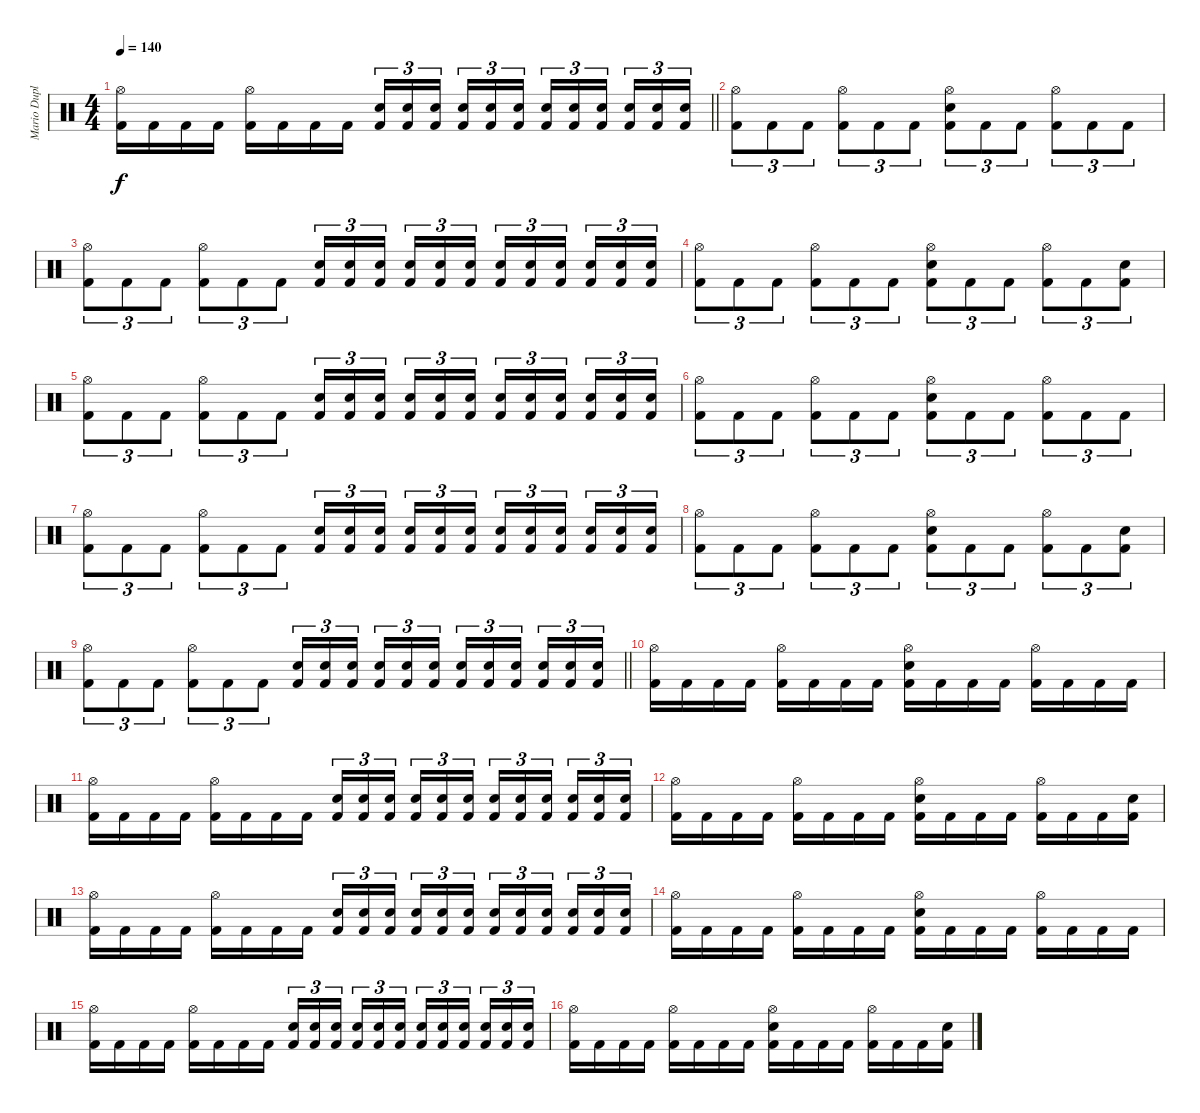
\track ("Mario Duplantier" "Mario Dupl") {instrument percussion}
\staff {score}
\articulation defaults
\ts (4 4)
\tempo 140
\clef neutral
\barLineRight lightlight
\ks c
("Hi-Hat (open)" "Kick (hit) 2").16{dy f} "Kick (hit) 2".16 "Kick (hit) 2".16 "Kick (hit) 2".16 ("Hi-Hat (open)" "Kick (hit) 2").16 "Kick (hit) 2".16 "Kick (hit) 2".16 "Kick (hit) 2".16 ("Snare (hit) 2" "Kick (hit) 2").16{tu (3 2)} ("Snare (hit) 2" "Kick (hit) 2").16{tu (3 2)} ("Snare (hit) 2" "Kick (hit) 2").16{tu (3 2) beam splitsecondary} ("Snare (hit) 2" "Kick (hit) 2").16{tu (3 2)} ("Snare (hit) 2" "Kick (hit) 2").16{tu (3 2)} ("Snare (hit) 2" "Kick (hit) 2").16{tu (3 2)} ("Snare (hit) 2" "Kick (hit) 2").16{tu (3 2)} ("Snare (hit) 2" "Kick (hit) 2").16{tu (3 2)} ("Snare (hit) 2" "Kick (hit) 2").16{tu (3 2) beam splitsecondary} ("Snare (hit) 2" "Kick (hit) 2").16{tu (3 2)} ("Snare (hit) 2" "Kick (hit) 2").16{tu (3 2)} ("Snare (hit) 2" "Kick (hit) 2").16{tu (3 2)} |
\section ("" "")
("Hi-Hat (open)" "Kick (hit) 2").8{tu (3 2)} "Kick (hit) 2".8{tu (3 2)} "Kick (hit) 2".8{tu (3 2)} ("Hi-Hat (open)" "Kick (hit) 2").8{tu (3 2)} "Kick (hit) 2".8{tu (3 2)} "Kick (hit) 2".8{tu (3 2)} ("Hi-Hat (open)" "Electric Snare (hit)" "Kick (hit) 2").8{tu (3 2)} "Kick (hit) 2".8{tu (3 2)} "Kick (hit) 2".8{tu (3 2)} ("Hi-Hat (open)" "Kick (hit) 2").8{tu (3 2)} "Kick (hit) 2".8{tu (3 2)} "Kick (hit) 2".8{tu (3 2)} |
("Hi-Hat (open)" "Kick (hit) 2").8{tu (3 2)} "Kick (hit) 2".8{tu (3 2)} "Kick (hit) 2".8{tu (3 2)} ("Hi-Hat (open)" "Kick (hit) 2").8{tu (3 2)} "Kick (hit) 2".8{tu (3 2)} "Kick (hit) 2".8{tu (3 2)} ("Electric Snare (hit)" "Kick (hit) 2").16{tu (3 2)} ("Electric Snare (hit)" "Kick (hit) 2").16{tu (3 2)} ("Electric Snare (hit)" "Kick (hit) 2").16{tu (3 2) beam splitsecondary} ("Electric Snare (hit)" "Kick (hit) 2").16{tu (3 2)} ("Electric Snare (hit)" "Kick (hit) 2").16{tu (3 2)} ("Electric Snare (hit)" "Kick (hit) 2").16{tu (3 2)} ("Electric Snare (hit)" "Kick (hit) 2").16{tu (3 2)} ("Electric Snare (hit)" "Kick (hit) 2").16{tu (3 2)} ("Electric Snare (hit)" "Kick (hit) 2").16{tu (3 2) beam splitsecondary} ("Electric Snare (hit)" "Kick (hit) 2").16{tu (3 2)} ("Electric Snare (hit)" "Kick (hit) 2").16{tu (3 2)} ("Electric Snare (hit)" "Kick (hit) 2").16{tu (3 2)} |
("Hi-Hat (open)" "Kick (hit) 2").8{tu (3 2)} "Kick (hit) 2".8{tu (3 2)} "Kick (hit) 2".8{tu (3 2)} ("Hi-Hat (open)" "Kick (hit) 2").8{tu (3 2)} "Kick (hit) 2".8{tu (3 2)} "Kick (hit) 2".8{tu (3 2)} ("Hi-Hat (open)" "Electric Snare (hit)" "Kick (hit) 2").8{tu (3 2)} "Kick (hit) 2".8{tu (3 2)} "Kick (hit) 2".8{tu (3 2)} ("Hi-Hat (open)" "Kick (hit) 2").8{tu (3 2)} "Kick (hit) 2".8{tu (3 2)} ("Electric Snare (hit)" "Kick (hit) 2").8{tu (3 2)} |
("Hi-Hat (open)" "Kick (hit) 2").8{tu (3 2)} "Kick (hit) 2".8{tu (3 2)} "Kick (hit) 2".8{tu (3 2)} ("Hi-Hat (open)" "Kick (hit) 2").8{tu (3 2)} "Kick (hit) 2".8{tu (3 2)} "Kick (hit) 2".8{tu (3 2)} ("Electric Snare (hit)" "Kick (hit) 2").16{tu (3 2)} ("Electric Snare (hit)" "Kick (hit) 2").16{tu (3 2)} ("Electric Snare (hit)" "Kick (hit) 2").16{tu (3 2) beam splitsecondary} ("Electric Snare (hit)" "Kick (hit) 2").16{tu (3 2)} ("Electric Snare (hit)" "Kick (hit) 2").16{tu (3 2)} ("Electric Snare (hit)" "Kick (hit) 2").16{tu (3 2)} ("Electric Snare (hit)" "Kick (hit) 2").16{tu (3 2)} ("Electric Snare (hit)" "Kick (hit) 2").16{tu (3 2)} ("Electric Snare (hit)" "Kick (hit) 2").16{tu (3 2) beam splitsecondary} ("Electric Snare (hit)" "Kick (hit) 2").16{tu (3 2)} ("Electric Snare (hit)" "Kick (hit) 2").16{tu (3 2)} ("Electric Snare (hit)" "Kick (hit) 2").16{tu (3 2)} |
("Hi-Hat (open)" "Kick (hit) 2").8{tu (3 2)} "Kick (hit) 2".8{tu (3 2)} "Kick (hit) 2".8{tu (3 2)} ("Hi-Hat (open)" "Kick (hit) 2").8{tu (3 2)} "Kick (hit) 2".8{tu (3 2)} "Kick (hit) 2".8{tu (3 2)} ("Hi-Hat (open)" "Electric Snare (hit)" "Kick (hit) 2").8{tu (3 2)} "Kick (hit) 2".8{tu (3 2)} "Kick (hit) 2".8{tu (3 2)} ("Hi-Hat (open)" "Kick (hit) 2").8{tu (3 2)} "Kick (hit) 2".8{tu (3 2)} "Kick (hit) 2".8{tu (3 2)} |
("Hi-Hat (open)" "Kick (hit) 2").8{tu (3 2)} "Kick (hit) 2".8{tu (3 2)} "Kick (hit) 2".8{tu (3 2)} ("Hi-Hat (open)" "Kick (hit) 2").8{tu (3 2)} "Kick (hit) 2".8{tu (3 2)} "Kick (hit) 2".8{tu (3 2)} ("Electric Snare (hit)" "Kick (hit) 2").16{tu (3 2)} ("Electric Snare (hit)" "Kick (hit) 2").16{tu (3 2)} ("Electric Snare (hit)" "Kick (hit) 2").16{tu (3 2) beam splitsecondary} ("Electric Snare (hit)" "Kick (hit) 2").16{tu (3 2)} ("Electric Snare (hit)" "Kick (hit) 2").16{tu (3 2)} ("Electric Snare (hit)" "Kick (hit) 2").16{tu (3 2)} ("Electric Snare (hit)" "Kick (hit) 2").16{tu (3 2)} ("Electric Snare (hit)" "Kick (hit) 2").16{tu (3 2)} ("Electric Snare (hit)" "Kick (hit) 2").16{tu (3 2) beam splitsecondary} ("Electric Snare (hit)" "Kick (hit) 2").16{tu (3 2)} ("Electric Snare (hit)" "Kick (hit) 2").16{tu (3 2)} ("Electric Snare (hit)" "Kick (hit) 2").16{tu (3 2)} |
("Hi-Hat (open)" "Kick (hit) 2").8{tu (3 2)} "Kick (hit) 2".8{tu (3 2)} "Kick (hit) 2".8{tu (3 2)} ("Hi-Hat (open)" "Kick (hit) 2").8{tu (3 2)} "Kick (hit) 2".8{tu (3 2)} "Kick (hit) 2".8{tu (3 2)} ("Hi-Hat (open)" "Electric Snare (hit)" "Kick (hit) 2").8{tu (3 2)} "Kick (hit) 2".8{tu (3 2)} "Kick (hit) 2".8{tu (3 2)} ("Hi-Hat (open)" "Kick (hit) 2").8{tu (3 2)} "Kick (hit) 2".8{tu (3 2)} ("Electric Snare (hit)" "Kick (hit) 2").8{tu (3 2)} |
\barLineRight lightlight
("Hi-Hat (open)" "Kick (hit) 2").8{tu (3 2)} "Kick (hit) 2".8{tu (3 2)} "Kick (hit) 2".8{tu (3 2)} ("Hi-Hat (open)" "Kick (hit) 2").8{tu (3 2)} "Kick (hit) 2".8{tu (3 2)} "Kick (hit) 2".8{tu (3 2)} ("Electric Snare (hit)" "Kick (hit) 2").16{tu (3 2)} ("Electric Snare (hit)" "Kick (hit) 2").16{tu (3 2)} ("Electric Snare (hit)" "Kick (hit) 2").16{tu (3 2) beam splitsecondary} ("Electric Snare (hit)" "Kick (hit) 2").16{tu (3 2)} ("Electric Snare (hit)" "Kick (hit) 2").16{tu (3 2)} ("Electric Snare (hit)" "Kick (hit) 2").16{tu (3 2)} ("Electric Snare (hit)" "Kick (hit) 2").16{tu (3 2)} ("Electric Snare (hit)" "Kick (hit) 2").16{tu (3 2)} ("Electric Snare (hit)" "Kick (hit) 2").16{tu (3 2) beam splitsecondary} ("Electric Snare (hit)" "Kick (hit) 2").16{tu (3 2)} ("Electric Snare (hit)" "Kick (hit) 2").16{tu (3 2)} ("Electric Snare (hit)" "Kick (hit) 2").16{tu (3 2)} |
\section ("" "")
("Hi-Hat (open)" "Kick (hit) 2").16 "Kick (hit) 2".16 "Kick (hit) 2".16 "Kick (hit) 2".16 ("Hi-Hat (open)" "Kick (hit) 2").16 "Kick (hit) 2".16 "Kick (hit) 2".16 "Kick (hit) 2".16 ("Hi-Hat (open)" "Electric Snare (hit)" "Kick (hit) 2").16 "Kick (hit) 2".16 "Kick (hit) 2".16 "Kick (hit) 2".16 ("Hi-Hat (open)" "Kick (hit) 2").16 "Kick (hit) 2".16 "Kick (hit) 2".16 "Kick (hit) 2".16 |
("Hi-Hat (open)" "Kick (hit) 2").16 "Kick (hit) 2".16 "Kick (hit) 2".16 "Kick (hit) 2".16 ("Hi-Hat (open)" "Kick (hit) 2").16 "Kick (hit) 2".16 "Kick (hit) 2".16 "Kick (hit) 2".16 ("Snare (hit) 2" "Kick (hit) 2").16{tu (3 2)} ("Snare (hit) 2" "Kick (hit) 2").16{tu (3 2)} ("Snare (hit) 2" "Kick (hit) 2").16{tu (3 2) beam splitsecondary} ("Snare (hit) 2" "Kick (hit) 2").16{tu (3 2)} ("Snare (hit) 2" "Kick (hit) 2").16{tu (3 2)} ("Snare (hit) 2" "Kick (hit) 2").16{tu (3 2)} ("Snare (hit) 2" "Kick (hit) 2").16{tu (3 2)} ("Snare (hit) 2" "Kick (hit) 2").16{tu (3 2)} ("Snare (hit) 2" "Kick (hit) 2").16{tu (3 2) beam splitsecondary} ("Snare (hit) 2" "Kick (hit) 2").16{tu (3 2)} ("Snare (hit) 2" "Kick (hit) 2").16{tu (3 2)} ("Snare (hit) 2" "Kick (hit) 2").16{tu (3 2)} |
("Hi-Hat (open)" "Kick (hit) 2").16 "Kick (hit) 2".16 "Kick (hit) 2".16 "Kick (hit) 2".16 ("Hi-Hat (open)" "Kick (hit) 2").16 "Kick (hit) 2".16 "Kick (hit) 2".16 "Kick (hit) 2".16 ("Hi-Hat (open)" "Electric Snare (hit)" "Kick (hit) 2").16 "Kick (hit) 2".16 "Kick (hit) 2".16 "Kick (hit) 2".16 ("Hi-Hat (open)" "Kick (hit) 2").16 "Kick (hit) 2".16 "Kick (hit) 2".16 ("Electric Snare (hit)" "Kick (hit) 2").16 |
("Hi-Hat (open)" "Kick (hit) 2").16 "Kick (hit) 2".16 "Kick (hit) 2".16 "Kick (hit) 2".16 ("Hi-Hat (open)" "Kick (hit) 2").16 "Kick (hit) 2".16 "Kick (hit) 2".16 "Kick (hit) 2".16 ("Snare (hit) 2" "Kick (hit) 2").16{tu (3 2)} ("Snare (hit) 2" "Kick (hit) 2").16{tu (3 2)} ("Snare (hit) 2" "Kick (hit) 2").16{tu (3 2) beam splitsecondary} ("Snare (hit) 2" "Kick (hit) 2").16{tu (3 2)} ("Snare (hit) 2" "Kick (hit) 2").16{tu (3 2)} ("Snare (hit) 2" "Kick (hit) 2").16{tu (3 2)} ("Snare (hit) 2" "Kick (hit) 2").16{tu (3 2)} ("Snare (hit) 2" "Kick (hit) 2").16{tu (3 2)} ("Snare (hit) 2" "Kick (hit) 2").16{tu (3 2) beam splitsecondary} ("Snare (hit) 2" "Kick (hit) 2").16{tu (3 2)} ("Snare (hit) 2" "Kick (hit) 2").16{tu (3 2)} ("Snare (hit) 2" "Kick (hit) 2").16{tu (3 2)} |
("Hi-Hat (open)" "Kick (hit) 2").16 "Kick (hit) 2".16 "Kick (hit) 2".16 "Kick (hit) 2".16 ("Hi-Hat (open)" "Kick (hit) 2").16 "Kick (hit) 2".16 "Kick (hit) 2".16 "Kick (hit) 2".16 ("Hi-Hat (open)" "Electric Snare (hit)" "Kick (hit) 2").16 "Kick (hit) 2".16 "Kick (hit) 2".16 "Kick (hit) 2".16 ("Hi-Hat (open)" "Kick (hit) 2").16 "Kick (hit) 2".16 "Kick (hit) 2".16 "Kick (hit) 2".16 |
("Hi-Hat (open)" "Kick (hit) 2").16 "Kick (hit) 2".16 "Kick (hit) 2".16 "Kick (hit) 2".16 ("Hi-Hat (open)" "Kick (hit) 2").16 "Kick (hit) 2".16 "Kick (hit) 2".16 "Kick (hit) 2".16 ("Snare (hit) 2" "Kick (hit) 2").16{tu (3 2)} ("Snare (hit) 2" "Kick (hit) 2").16{tu (3 2)} ("Snare (hit) 2" "Kick (hit) 2").16{tu (3 2) beam splitsecondary} ("Snare (hit) 2" "Kick (hit) 2").16{tu (3 2)} ("Snare (hit) 2" "Kick (hit) 2").16{tu (3 2)} ("Snare (hit) 2" "Kick (hit) 2").16{tu (3 2)} ("Snare (hit) 2" "Kick (hit) 2").16{tu (3 2)} ("Snare (hit) 2" "Kick (hit) 2").16{tu (3 2)} ("Snare (hit) 2" "Kick (hit) 2").16{tu (3 2) beam splitsecondary} ("Snare (hit) 2" "Kick (hit) 2").16{tu (3 2)} ("Snare (hit) 2" "Kick (hit) 2").16{tu (3 2)} ("Snare (hit) 2" "Kick (hit) 2").16{tu (3 2)} |
("Hi-Hat (open)" "Kick (hit) 2").16 "Kick (hit) 2".16 "Kick (hit) 2".16 "Kick (hit) 2".16 ("Hi-Hat (open)" "Kick (hit) 2").16 "Kick (hit) 2".16 "Kick (hit) 2".16 "Kick (hit) 2".16 ("Hi-Hat (open)" "Electric Snare (hit)" "Kick (hit) 2").16 "Kick (hit) 2".16 "Kick (hit) 2".16 "Kick (hit) 2".16 ("Hi-Hat (open)" "Kick (hit) 2").16 "Kick (hit) 2".16 "Kick (hit) 2".16 ("Electric Snare (hit)" "Kick (hit) 2").16
